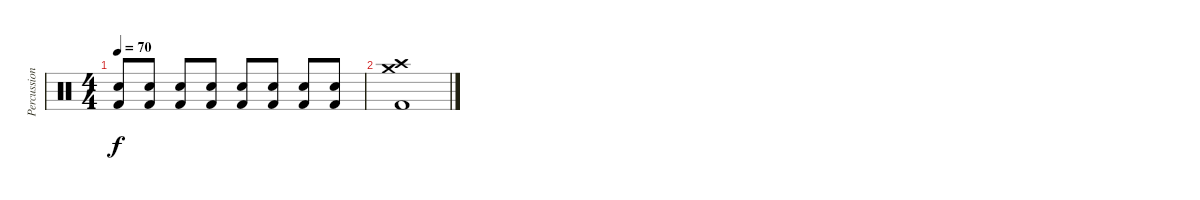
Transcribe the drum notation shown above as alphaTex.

\track ("Percussions" "Percussion") {instrument percussion}
\staff {score}
\articulation defaults
\ts (4 4)
\tempo 70
\clef neutral
\ks c
("Snare (hit) 2" "Kick (hit) 2").8{dy f} ("Snare (hit) 2" "Kick (hit) 2").8 ("Snare (hit) 2" "Kick (hit) 2").8 ("Snare (hit) 2" "Kick (hit) 2").8 ("Snare (hit) 2" "Kick (hit) 2").8 ("Snare (hit) 2" "Kick (hit) 2").8 ("Snare (hit) 2" "Kick (hit) 2").8 ("Snare (hit) 2" "Kick (hit) 2").8 |
("Crash high (hit)" "Crash medium (hit)" "Kick (hit) 2").1
